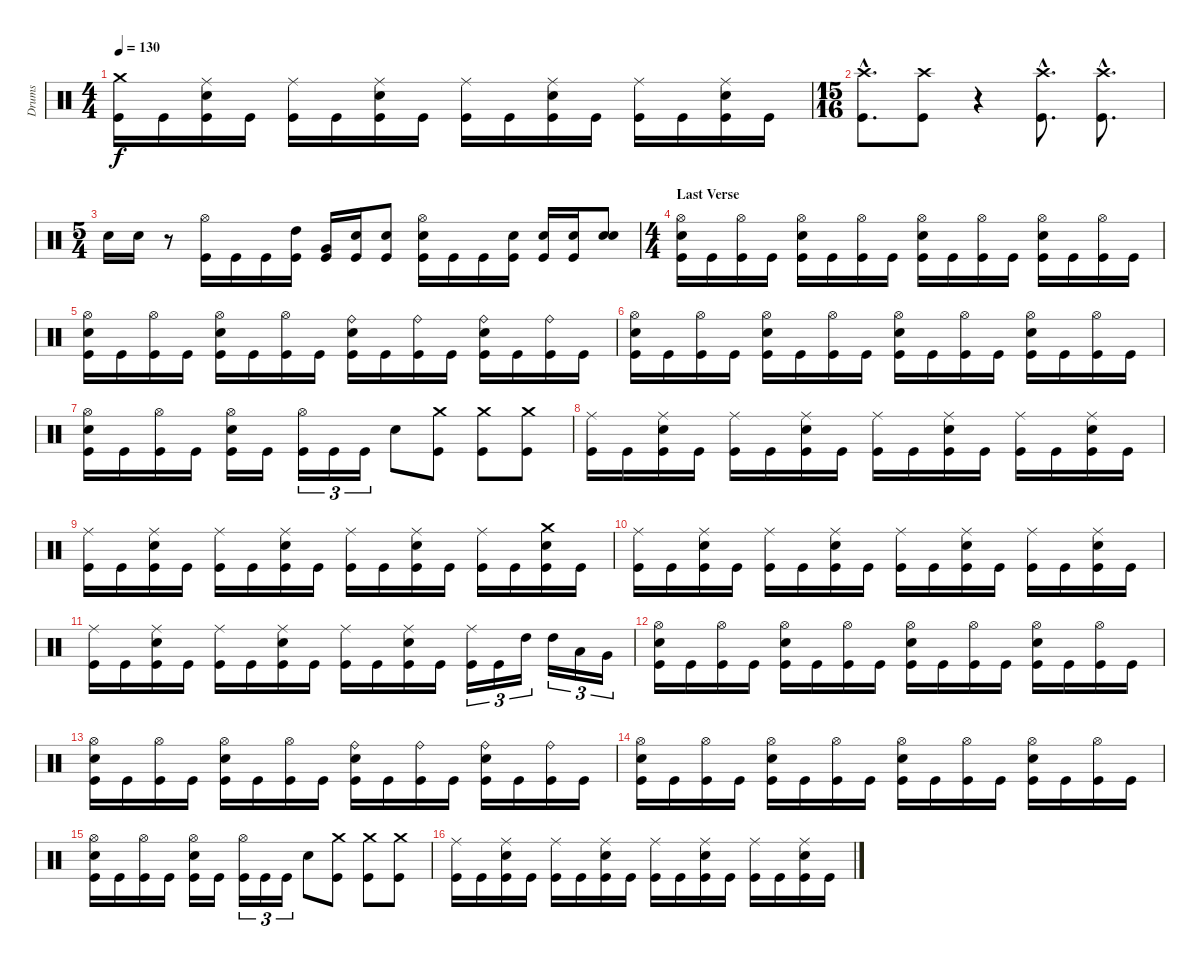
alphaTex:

\track ("Drums" "Drums") {instrument percussion}
\staff {score}
\articulation defaults
\ts (4 4)
\tempo 130
\clef neutral
\ks c
("Crash medium (hit)" "Kick (hit)").16{dy f} "Kick (hit)".16 ("Ride (middle)" "Electric Snare (hit)" "Kick (hit)").16 "Kick (hit)".16 ("Ride (middle)" "Kick (hit)").16 "Kick (hit)".16 ("Ride (middle)" "Electric Snare (hit)" "Kick (hit)").16 "Kick (hit)".16 ("Ride (middle)" "Kick (hit)").16 "Kick (hit)".16 ("Ride (middle)" "Electric Snare (hit)" "Kick (hit)").16 "Kick (hit)".16 ("Ride (middle)" "Kick (hit)").16 "Kick (hit)".16 ("Ride (middle)" "Electric Snare (hit)" "Kick (hit)").16 "Kick (hit)".16 |
\ts (15 16)
("Crash high (hit)"{hac} "Kick (hit)"{hac}).8{d} ("Crash high (hit)" "Kick (hit)").8 r.4 ("Crash high (hit)"{hac} "Kick (hit)"{hac}).8{d} ("Crash high (hit)"{hac} "Kick (hit)"{hac}).8{d} |
\ts (5 4)
"Snare (hit) 2".16 "Snare (hit) 2".16 r.8 ("Hi-Hat (open)" "Kick (hit)").16 "Kick (hit)".16 "Kick (hit)".16 ("High Tom (hit)" "Kick (hit)").16 ("Very Low Tom (hit)" "Kick (hit)").16 ("Snare (hit) 2" "Kick (hit)").16 ("Snare (hit) 2" "Kick (hit)").8 ("Hi-Hat (open)" "Electric Snare (hit)" "Kick (hit)").16 "Kick (hit)".16 "Kick (hit)".16 ("Snare (hit) 2" "Kick (hit)").16 ("Snare (hit) 2" "Kick (hit)").16 ("Snare (hit) 2" "Kick (hit)").16 ("Electric Snare (hit)" "Snare (hit) 2").8 |
\ts (4 4)
\section ("" "Last Verse")
("Hi-Hat (open)" "Electric Snare (hit)" "Kick (hit)").16 "Kick (hit)".16 ("Hi-Hat (open)" "Kick (hit)").16 "Kick (hit)".16 ("Hi-Hat (open)" "Electric Snare (hit)" "Kick (hit)").16 "Kick (hit)".16 ("Hi-Hat (open)" "Kick (hit)").16 "Kick (hit)".16 ("Hi-Hat (open)" "Electric Snare (hit)" "Kick (hit)").16 "Kick (hit)".16 ("Hi-Hat (open)" "Kick (hit)").16 "Kick (hit)".16 ("Hi-Hat (open)" "Electric Snare (hit)" "Kick (hit)").16 "Kick (hit)".16 ("Hi-Hat (open)" "Kick (hit)").16 "Kick (hit)".16 |
("Hi-Hat (open)" "Electric Snare (hit)" "Kick (hit)").16 "Kick (hit)".16 ("Hi-Hat (open)" "Kick (hit)").16 "Kick (hit)".16 ("Hi-Hat (open)" "Electric Snare (hit)" "Kick (hit)").16 "Kick (hit)".16 ("Hi-Hat (open)" "Kick (hit)").16 "Kick (hit)".16 ("Ride (bell)" "Electric Snare (hit)" "Kick (hit)").16 "Kick (hit)".16 ("Ride (bell)" "Kick (hit)").16 "Kick (hit)".16 ("Ride (bell)" "Electric Snare (hit)" "Kick (hit)").16 "Kick (hit)".16 ("Ride (bell)" "Kick (hit)").16 "Kick (hit)".16 |
("Hi-Hat (open)" "Electric Snare (hit)" "Kick (hit)").16 "Kick (hit)".16 ("Hi-Hat (open)" "Kick (hit)").16 "Kick (hit)".16 ("Hi-Hat (open)" "Electric Snare (hit)" "Kick (hit)").16 "Kick (hit)".16 ("Hi-Hat (open)" "Kick (hit)").16 "Kick (hit)".16 ("Hi-Hat (open)" "Electric Snare (hit)" "Kick (hit)").16 "Kick (hit)".16 ("Hi-Hat (open)" "Kick (hit)").16 "Kick (hit)".16 ("Hi-Hat (open)" "Electric Snare (hit)" "Kick (hit)").16 "Kick (hit)".16 ("Hi-Hat (open)" "Kick (hit)").16 "Kick (hit)".16 |
("Hi-Hat (open)" "Electric Snare (hit)" "Kick (hit)").16 "Kick (hit)".16 ("Hi-Hat (open)" "Kick (hit)").16 "Kick (hit)".16 ("Hi-Hat (open)" "Electric Snare (hit)" "Kick (hit)").16 "Kick (hit)".16 ("Hi-Hat (open)" "Kick (hit)").16{tu (3 2)} "Kick (hit)".16{tu (3 2)} "Kick (hit)".16{tu (3 2)} "Electric Snare (hit)".8 ("Crash medium (hit)" "Kick (hit)").8 ("Crash medium (hit)" "Kick (hit)").8 ("Crash medium (hit)" "Kick (hit)").8 |
("Ride (middle)" "Kick (hit)").16 "Kick (hit)".16 ("Ride (middle)" "Electric Snare (hit)" "Kick (hit)").16 "Kick (hit)".16 ("Ride (middle)" "Kick (hit)").16 "Kick (hit)".16 ("Ride (middle)" "Electric Snare (hit)" "Kick (hit)").16 "Kick (hit)".16 ("Ride (middle)" "Kick (hit)").16 "Kick (hit)".16 ("Ride (middle)" "Electric Snare (hit)" "Kick (hit)").16 "Kick (hit)".16 ("Ride (middle)" "Kick (hit)").16 "Kick (hit)".16 ("Ride (middle)" "Electric Snare (hit)" "Kick (hit)").16 "Kick (hit)".16 |
("Ride (middle)" "Kick (hit)").16 "Kick (hit)".16 ("Ride (middle)" "Electric Snare (hit)" "Kick (hit)").16 "Kick (hit)".16 ("Ride (middle)" "Kick (hit)").16 "Kick (hit)".16 ("Ride (middle)" "Electric Snare (hit)" "Kick (hit)").16 "Kick (hit)".16 ("Ride (middle)" "Kick (hit)").16 "Kick (hit)".16 ("Ride (middle)" "Electric Snare (hit)" "Kick (hit)").16 "Kick (hit)".16 ("Ride (middle)" "Kick (hit)").16 "Kick (hit)".16 ("Crash medium (hit)" "Electric Snare (hit)" "Kick (hit)").16 "Kick (hit)".16 |
("Ride (middle)" "Kick (hit)").16 "Kick (hit)".16 ("Ride (middle)" "Electric Snare (hit)" "Kick (hit)").16 "Kick (hit)".16 ("Ride (middle)" "Kick (hit)").16 "Kick (hit)".16 ("Ride (middle)" "Electric Snare (hit)" "Kick (hit)").16 "Kick (hit)".16 ("Ride (middle)" "Kick (hit)").16 "Kick (hit)".16 ("Ride (middle)" "Electric Snare (hit)" "Kick (hit)").16 "Kick (hit)".16 ("Ride (middle)" "Kick (hit)").16 "Kick (hit)".16 ("Ride (middle)" "Electric Snare (hit)" "Kick (hit)").16 "Kick (hit)".16 |
("Ride (middle)" "Kick (hit)").16 "Kick (hit)".16 ("Ride (middle)" "Electric Snare (hit)" "Kick (hit)").16 "Kick (hit)".16 ("Ride (middle)" "Kick (hit)").16 "Kick (hit)".16 ("Ride (middle)" "Electric Snare (hit)" "Kick (hit)").16 "Kick (hit)".16 ("Ride (middle)" "Kick (hit)").16 "Kick (hit)".16 ("Ride (middle)" "Electric Snare (hit)" "Kick (hit)").16 "Kick (hit)".16 ("Ride (middle)" "Kick (hit)").16{tu (3 2)} "Kick (hit)".16{tu (3 2)} "High Tom (hit)".16{tu (3 2)} "High Tom (hit)".16{tu (3 2)} "Low Tom (hit)".16{tu (3 2)} "Very Low Tom (hit)".16{tu (3 2)} |
("Hi-Hat (open)" "Electric Snare (hit)" "Kick (hit)").16 "Kick (hit)".16 ("Hi-Hat (open)" "Kick (hit)").16 "Kick (hit)".16 ("Hi-Hat (open)" "Electric Snare (hit)" "Kick (hit)").16 "Kick (hit)".16 ("Hi-Hat (open)" "Kick (hit)").16 "Kick (hit)".16 ("Hi-Hat (open)" "Electric Snare (hit)" "Kick (hit)").16 "Kick (hit)".16 ("Hi-Hat (open)" "Kick (hit)").16 "Kick (hit)".16 ("Hi-Hat (open)" "Electric Snare (hit)" "Kick (hit)").16 "Kick (hit)".16 ("Hi-Hat (open)" "Kick (hit)").16 "Kick (hit)".16 |
("Hi-Hat (open)" "Electric Snare (hit)" "Kick (hit)").16 "Kick (hit)".16 ("Hi-Hat (open)" "Kick (hit)").16 "Kick (hit)".16 ("Hi-Hat (open)" "Electric Snare (hit)" "Kick (hit)").16 "Kick (hit)".16 ("Hi-Hat (open)" "Kick (hit)").16 "Kick (hit)".16 ("Ride (bell)" "Electric Snare (hit)" "Kick (hit)").16 "Kick (hit)".16 ("Ride (bell)" "Kick (hit)").16 "Kick (hit)".16 ("Ride (bell)" "Electric Snare (hit)" "Kick (hit)").16 "Kick (hit)".16 ("Ride (bell)" "Kick (hit)").16 "Kick (hit)".16 |
("Hi-Hat (open)" "Electric Snare (hit)" "Kick (hit)").16 "Kick (hit)".16 ("Hi-Hat (open)" "Kick (hit)").16 "Kick (hit)".16 ("Hi-Hat (open)" "Electric Snare (hit)" "Kick (hit)").16 "Kick (hit)".16 ("Hi-Hat (open)" "Kick (hit)").16 "Kick (hit)".16 ("Hi-Hat (open)" "Electric Snare (hit)" "Kick (hit)").16 "Kick (hit)".16 ("Hi-Hat (open)" "Kick (hit)").16 "Kick (hit)".16 ("Hi-Hat (open)" "Electric Snare (hit)" "Kick (hit)").16 "Kick (hit)".16 ("Hi-Hat (open)" "Kick (hit)").16 "Kick (hit)".16 |
("Hi-Hat (open)" "Electric Snare (hit)" "Kick (hit)").16 "Kick (hit)".16 ("Hi-Hat (open)" "Kick (hit)").16 "Kick (hit)".16 ("Hi-Hat (open)" "Electric Snare (hit)" "Kick (hit)").16 "Kick (hit)".16 ("Hi-Hat (open)" "Kick (hit)").16{tu (3 2)} "Kick (hit)".16{tu (3 2)} "Kick (hit)".16{tu (3 2)} "Electric Snare (hit)".8 ("Crash medium (hit)" "Kick (hit)").8 ("Crash medium (hit)" "Kick (hit)").8 ("Crash medium (hit)" "Kick (hit)").8 |
("Ride (middle)" "Kick (hit)").16 "Kick (hit)".16 ("Ride (middle)" "Electric Snare (hit)" "Kick (hit)").16 "Kick (hit)".16 ("Ride (middle)" "Kick (hit)").16 "Kick (hit)".16 ("Ride (middle)" "Electric Snare (hit)" "Kick (hit)").16 "Kick (hit)".16 ("Ride (middle)" "Kick (hit)").16 "Kick (hit)".16 ("Ride (middle)" "Electric Snare (hit)" "Kick (hit)").16 "Kick (hit)".16 ("Ride (middle)" "Kick (hit)").16 "Kick (hit)".16 ("Ride (middle)" "Electric Snare (hit)" "Kick (hit)").16 "Kick (hit)".16
